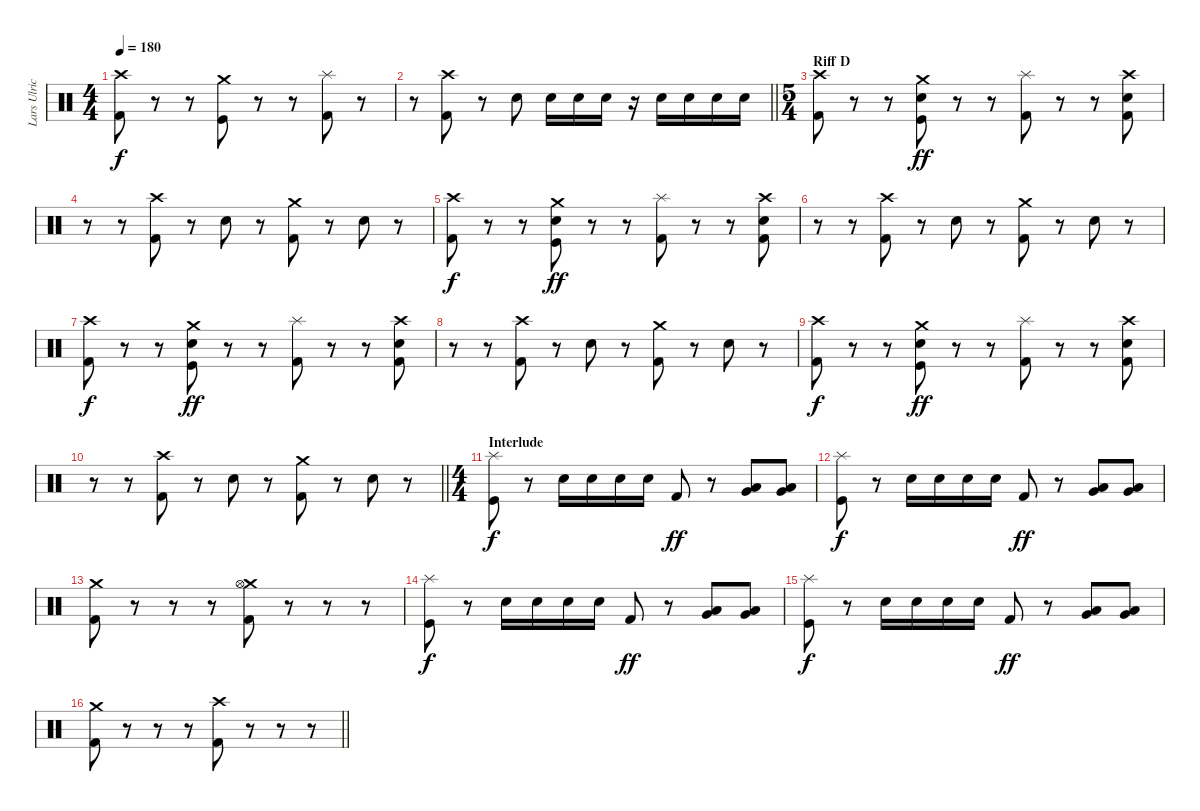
\track ("Lars Ulrich" "Lars Ulric") {instrument percussion}
\staff {score}
\articulation defaults
\ts (4 4)
\tempo 180
\clef neutral
\ks c
("Crash high (hit)" "Kick (hit) 2").8{dy f} r.8 r.8 ("Crash medium (hit)" "Kick (hit)").8 r.8 r.8 ("Splash (hit)" "Kick (hit) 2").8 r.8 |
\barLineRight lightlight
r.8 ("Crash high (hit)" "Kick (hit) 2").8 r.8 "Electric Snare (hit)".8 "Electric Snare (hit)".16 "Electric Snare (hit)".16 "Electric Snare (hit)".16 r.16 "Electric Snare (hit)".16 "Electric Snare (hit)".16 "Electric Snare (hit)".16 "Electric Snare (hit)".16 |
\ts (5 4)
\section ("" "Riff D")
("Crash high (hit)" "Kick (hit) 2").8 r.8 r.8 ("Crash medium (hit)" "Electric Snare (hit)" "Kick (hit)").8{dy ff} r.8 r.8 ("Splash (hit)" "Kick (hit) 2").8 r.8 r.8 ("Crash high (hit)" "Electric Snare (hit)" "Kick (hit) 2").8 |
r.8 r.8 ("Crash high (hit)" "Kick (hit) 2").8 r.8 "Electric Snare (hit)".8 r.8 ("Crash medium (hit)" "Kick (hit) 2").8 r.8 "Electric Snare (hit)".8 r.8 |
("Crash high (hit)" "Kick (hit) 2").8{dy f} r.8 r.8 ("Crash medium (hit)" "Electric Snare (hit)" "Kick (hit)").8{dy ff} r.8 r.8 ("Splash (hit)" "Kick (hit) 2").8 r.8 r.8 ("Crash high (hit)" "Electric Snare (hit)" "Kick (hit) 2").8 |
r.8 r.8 ("Crash high (hit)" "Kick (hit) 2").8 r.8 "Electric Snare (hit)".8 r.8 ("Crash medium (hit)" "Kick (hit) 2").8 r.8 "Electric Snare (hit)".8 r.8 |
("Crash high (hit)" "Kick (hit) 2").8{dy f} r.8 r.8 ("Crash medium (hit)" "Electric Snare (hit)" "Kick (hit)").8{dy ff} r.8 r.8 ("Splash (hit)" "Kick (hit) 2").8 r.8 r.8 ("Crash high (hit)" "Electric Snare (hit)" "Kick (hit) 2").8 |
r.8 r.8 ("Crash high (hit)" "Kick (hit) 2").8 r.8 "Electric Snare (hit)".8 r.8 ("Crash medium (hit)" "Kick (hit) 2").8 r.8 "Electric Snare (hit)".8 r.8 |
("Crash high (hit)" "Kick (hit) 2").8{dy f} r.8 r.8 ("Crash medium (hit)" "Electric Snare (hit)" "Kick (hit)").8{dy ff} r.8 r.8 ("Splash (hit)" "Kick (hit) 2").8 r.8 r.8 ("Crash high (hit)" "Electric Snare (hit)" "Kick (hit) 2").8 |
\barLineRight lightlight
r.8 r.8 ("Crash high (hit)" "Kick (hit) 2").8 r.8 "Electric Snare (hit)".8 r.8 ("Crash medium (hit)" "Kick (hit) 2").8 r.8 "Electric Snare (hit)".8 r.8 |
\ts (4 4)
\section ("" "Interlude")
("Splash (hit)" "Kick (hit)").8{dy f} r.8 "Electric Snare (hit)".16 "Electric Snare (hit)".16 "Electric Snare (hit)".16 "Electric Snare (hit)".16 "Kick (hit) 2".8{dy ff} r.8 ("Very Low Tom (hit)" "Low Tom (hit)").8 ("Very Low Tom (hit)" "Low Tom (hit)").8 |
("Splash (hit)" "Kick (hit)").8{dy f} r.8 "Electric Snare (hit)".16 "Electric Snare (hit)".16 "Electric Snare (hit)".16 "Electric Snare (hit)".16 "Kick (hit) 2".8{dy ff} r.8 ("Very Low Tom (hit)" "Low Tom (hit)").8 ("Very Low Tom (hit)" "Low Tom (hit)").8 |
("Crash medium (hit)" "Kick (hit) 2").8 r.8 r.8 r.8 ("Crash medium (hit)" "Hi-Hat (open)" "Kick (hit) 2").8 r.8 r.8 r.8 |
("Splash (hit)" "Kick (hit)").8{dy f} r.8 "Electric Snare (hit)".16 "Electric Snare (hit)".16 "Electric Snare (hit)".16 "Electric Snare (hit)".16 "Kick (hit) 2".8{dy ff} r.8 ("Very Low Tom (hit)" "Low Tom (hit)").8 ("Very Low Tom (hit)" "Low Tom (hit)").8 |
("Splash (hit)" "Kick (hit)").8{dy f} r.8 "Electric Snare (hit)".16 "Electric Snare (hit)".16 "Electric Snare (hit)".16 "Electric Snare (hit)".16 "Kick (hit) 2".8{dy ff} r.8 ("Very Low Tom (hit)" "Low Tom (hit)").8 ("Very Low Tom (hit)" "Low Tom (hit)").8 |
\barLineRight lightlight
("Crash medium (hit)" "Kick (hit) 2").8 r.8 r.8 r.8 ("Crash high (hit)" "Kick (hit) 2").8 r.8 r.8 r.8
